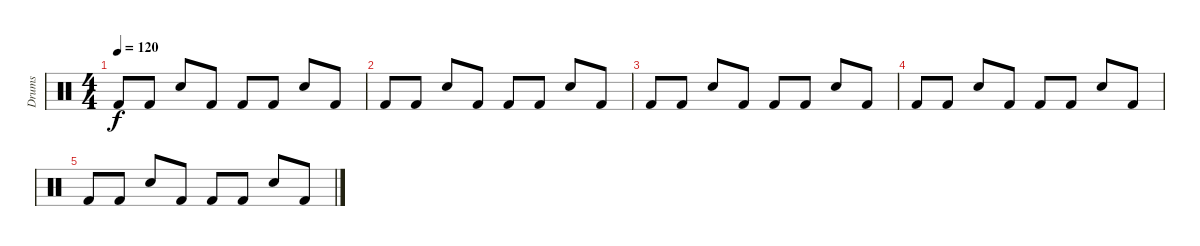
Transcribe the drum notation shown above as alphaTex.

\track ("Drums" "Drums") {instrument percussion}
\staff {score}
\articulation defaults
\ts (4 4)
\tempo 120
\clef neutral
\ks c "Kick (hit) 2".8{dy f} "Kick (hit) 2".8 "Snare (hit) 2".8 "Kick (hit) 2".8 "Kick (hit) 2".8 "Kick (hit) 2".8 "Snare (hit) 2".8 "Kick (hit) 2".8
|
"Kick (hit) 2".8 "Kick (hit) 2".8 "Snare (hit) 2".8 "Kick (hit) 2".8 "Kick (hit) 2".8 "Kick (hit) 2".8 "Snare (hit) 2".8 "Kick (hit) 2".8 |
"Kick (hit) 2".8 "Kick (hit) 2".8 "Snare (hit) 2".8 "Kick (hit) 2".8 "Kick (hit) 2".8 "Kick (hit) 2".8 "Snare (hit) 2".8 "Kick (hit) 2".8 |
"Kick (hit) 2".8 "Kick (hit) 2".8 "Snare (hit) 2".8 "Kick (hit) 2".8 "Kick (hit) 2".8 "Kick (hit) 2".8 "Snare (hit) 2".8 "Kick (hit) 2".8 |
"Kick (hit) 2".8 "Kick (hit) 2".8 "Snare (hit) 2".8 "Kick (hit) 2".8 "Kick (hit) 2".8 "Kick (hit) 2".8 "Snare (hit) 2".8 "Kick (hit) 2".8
